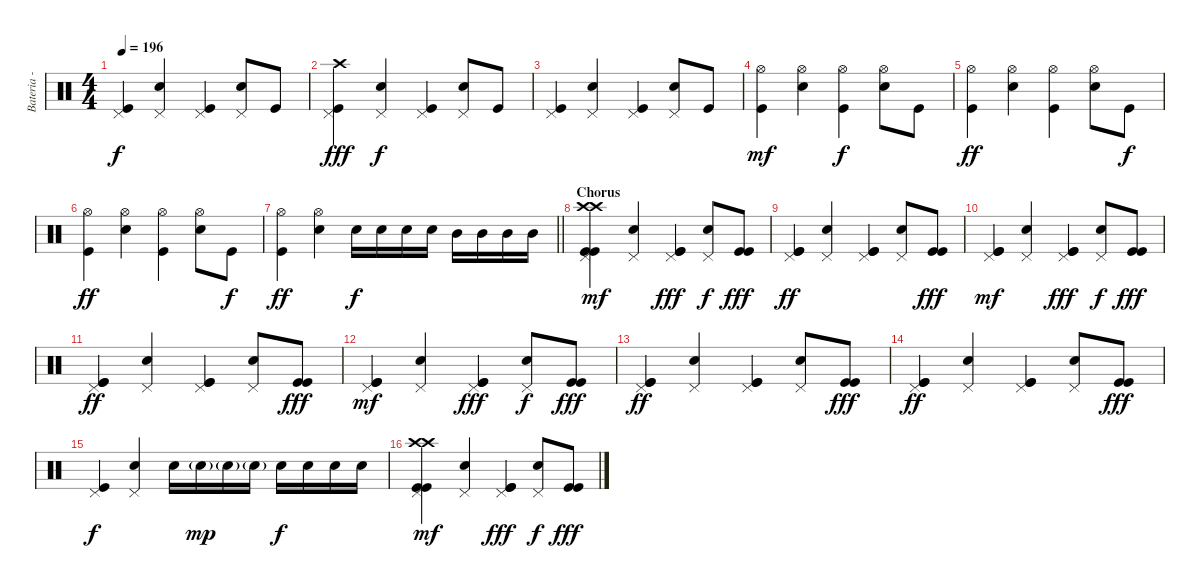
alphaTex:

\track ("Bateria - Larzon" "Bateria - ") {instrument percussion}
\staff {score}
\articulation defaults
\ts (4 4)
\tempo 196
\clef neutral
\ks c
("Kick (hit)" "Pedal Hi-Hat (hit)").4{dy f} ("Electric Snare (hit)" "Pedal Hi-Hat (hit)").4 ("Kick (hit)" "Pedal Hi-Hat (hit)").4 ("Electric Snare (hit)" "Pedal Hi-Hat (hit)").8 "Kick (hit)".8 |
("Kick (hit)" "Crash high (hit)" "Pedal Hi-Hat (hit)").4{dy fff} ("Electric Snare (hit)" "Pedal Hi-Hat (hit)").4{dy f} ("Kick (hit)" "Pedal Hi-Hat (hit)").4 ("Electric Snare (hit)" "Pedal Hi-Hat (hit)").8 "Kick (hit)".8 |
("Kick (hit)" "Pedal Hi-Hat (hit)").4 ("Electric Snare (hit)" "Pedal Hi-Hat (hit)").4 ("Kick (hit)" "Pedal Hi-Hat (hit)").4 ("Electric Snare (hit)" "Pedal Hi-Hat (hit)").8 "Kick (hit)".8 |
("Kick (hit)" "Hi-Hat (open)").4{dy mf} ("Electric Snare (hit)" "Hi-Hat (open)").4 ("Kick (hit)" "Hi-Hat (open)").4{dy f} ("Electric Snare (hit)" "Hi-Hat (open)").8 "Kick (hit)".8 |
("Kick (hit)" "Hi-Hat (open)").4{dy ff} ("Electric Snare (hit)" "Hi-Hat (open)").4 ("Kick (hit)" "Hi-Hat (open)").4 ("Electric Snare (hit)" "Hi-Hat (open)").8 "Kick (hit)".8{dy f} |
("Kick (hit)" "Hi-Hat (open)").4{dy ff} ("Electric Snare (hit)" "Hi-Hat (open)").4 ("Kick (hit)" "Hi-Hat (open)").4 ("Electric Snare (hit)" "Hi-Hat (open)").8 "Kick (hit)".8{dy f} |
\barLineRight lightlight
("Kick (hit)" "Hi-Hat (open)").4{dy ff} ("Electric Snare (hit)" "Hi-Hat (open)").4 "Electric Snare (hit)".16{dy f} "Electric Snare (hit)".16 "Electric Snare (hit)".16 "Electric Snare (hit)".16 "Mid Tom (hit)".16 "Mid Tom (hit)".16 "Mid Tom (hit)".16 "Mid Tom (hit)".16 |
\section ("" "Chorus")
("Kick (hit)" "Kick (hit)" "Crash high (hit)" "Crash high (hit)" "Pedal Hi-Hat (hit)").4{dy mf} ("Electric Snare (hit)" "Pedal Hi-Hat (hit)").4 ("Kick (hit)" "Kick (hit)" "Pedal Hi-Hat (hit)").4{dy fff} ("Electric Snare (hit)" "Pedal Hi-Hat (hit)").8{dy f} ("Kick (hit)" "Kick (hit)").8{dy fff} |
("Kick (hit)" "Kick (hit)" "Pedal Hi-Hat (hit)").4{dy ff} ("Electric Snare (hit)" "Pedal Hi-Hat (hit)").4 ("Kick (hit)" "Kick (hit)" "Pedal Hi-Hat (hit)").4 ("Electric Snare (hit)" "Pedal Hi-Hat (hit)").8 ("Kick (hit)" "Kick (hit)").8{dy fff} |
("Kick (hit)" "Kick (hit)" "Pedal Hi-Hat (hit)").4{dy mf} ("Electric Snare (hit)" "Pedal Hi-Hat (hit)").4 ("Kick (hit)" "Kick (hit)" "Pedal Hi-Hat (hit)").4{dy fff} ("Electric Snare (hit)" "Pedal Hi-Hat (hit)").8{dy f} ("Kick (hit)" "Kick (hit)").8{dy fff} |
("Kick (hit)" "Kick (hit)" "Pedal Hi-Hat (hit)").4{dy ff} ("Electric Snare (hit)" "Pedal Hi-Hat (hit)").4 ("Kick (hit)" "Kick (hit)" "Pedal Hi-Hat (hit)").4 ("Electric Snare (hit)" "Pedal Hi-Hat (hit)").8 ("Kick (hit)" "Kick (hit)").8{dy fff} |
("Kick (hit)" "Kick (hit)" "Pedal Hi-Hat (hit)").4{dy mf} ("Electric Snare (hit)" "Pedal Hi-Hat (hit)").4 ("Kick (hit)" "Kick (hit)" "Pedal Hi-Hat (hit)").4{dy fff} ("Electric Snare (hit)" "Pedal Hi-Hat (hit)").8{dy f} ("Kick (hit)" "Kick (hit)").8{dy fff} |
("Kick (hit)" "Kick (hit)" "Pedal Hi-Hat (hit)").4{dy ff} ("Electric Snare (hit)" "Pedal Hi-Hat (hit)").4 ("Kick (hit)" "Kick (hit)" "Pedal Hi-Hat (hit)").4 ("Electric Snare (hit)" "Pedal Hi-Hat (hit)").8 ("Kick (hit)" "Kick (hit)").8{dy fff} |
("Kick (hit)" "Kick (hit)" "Pedal Hi-Hat (hit)").4{dy ff} ("Electric Snare (hit)" "Pedal Hi-Hat (hit)").4 ("Kick (hit)" "Kick (hit)" "Pedal Hi-Hat (hit)").4 ("Electric Snare (hit)" "Pedal Hi-Hat (hit)").8 ("Kick (hit)" "Kick (hit)").8{dy fff} |
("Kick (hit)" "Pedal Hi-Hat (hit)").4{dy f} ("Electric Snare (hit)" "Pedal Hi-Hat (hit)").4 "Electric Snare (hit)".16 "Electric Snare (hit)"{g}.16{dy mp} "Electric Snare (hit)"{g}.16 "Electric Snare (hit)"{g}.16 "Electric Snare (hit)".16{dy f} "Electric Snare (hit)".16 "Electric Snare (hit)".16 "Electric Snare (hit)".16 |
("Kick (hit)" "Kick (hit)" "Crash high (hit)" "Crash high (hit)" "Pedal Hi-Hat (hit)").4{dy mf} ("Electric Snare (hit)" "Pedal Hi-Hat (hit)").4 ("Kick (hit)" "Kick (hit)" "Pedal Hi-Hat (hit)").4{dy fff} ("Electric Snare (hit)" "Pedal Hi-Hat (hit)").8{dy f} ("Kick (hit)" "Kick (hit)").8{dy fff}
